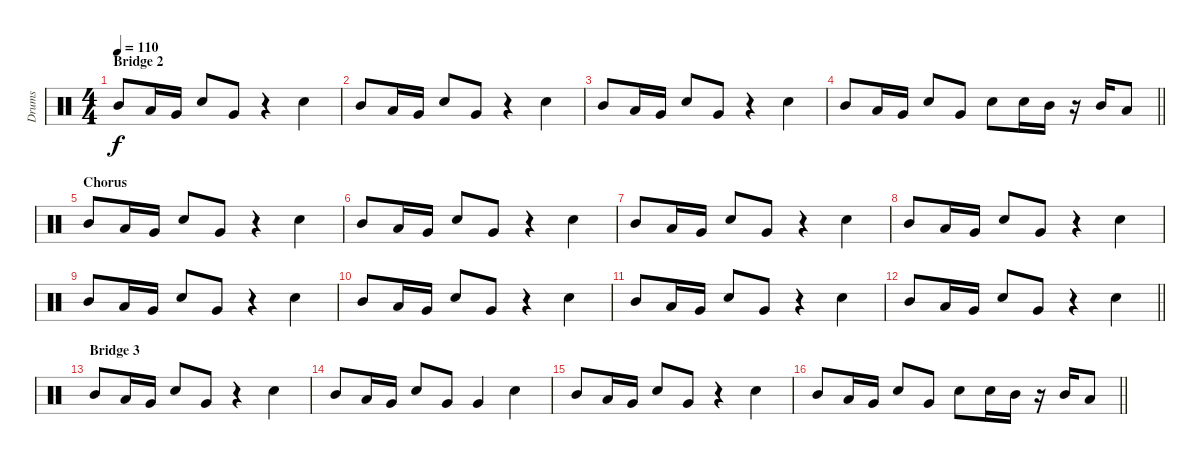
\track ("Drums" "Drums") {instrument percussion}
\staff {score}
\articulation defaults
\ts (4 4)
\section ("" "Bridge 2")
\tempo 110
\clef neutral
\ks c "Mid Tom (hit)".8{dy f} "Low Tom (hit)".16 "Very Low Tom (hit)".16 "Snare (hit) 2".8 "Very Low Tom (hit)".8
r.4 "Snare (hit) 2".4 |
"Mid Tom (hit)".8 "Low Tom (hit)".16 "Very Low Tom (hit)".16 "Snare (hit) 2".8 "Very Low Tom (hit)".8 r.4 "Snare (hit) 2".4 |
"Mid Tom (hit)".8 "Low Tom (hit)".16 "Very Low Tom (hit)".16 "Snare (hit) 2".8 "Very Low Tom (hit)".8 r.4 "Snare (hit) 2".4 |
\barLineRight lightlight "Mid Tom (hit)".8 "Low Tom (hit)".16 "Very Low Tom (hit)".16 "Snare (hit) 2".8 "Very Low Tom (hit)".8 "Snare (hit) 2".8 "Snare (hit) 2".16 "Mid Tom (hit)".16
r.16 "Mid Tom (hit)".16 "Low Tom (hit)".8 |
\section ("" "Chorus")
"Mid Tom (hit)".8 "Low Tom (hit)".16 "Very Low Tom (hit)".16 "Snare (hit) 2".8 "Very Low Tom (hit)".8 r.4 "Snare (hit) 2".4 |
"Mid Tom (hit)".8 "Low Tom (hit)".16 "Very Low Tom (hit)".16 "Snare (hit) 2".8 "Very Low Tom (hit)".8 r.4 "Snare (hit) 2".4 |
"Mid Tom (hit)".8 "Low Tom (hit)".16 "Very Low Tom (hit)".16 "Snare (hit) 2".8 "Very Low Tom (hit)".8 r.4 "Snare (hit) 2".4 |
"Mid Tom (hit)".8 "Low Tom (hit)".16 "Very Low Tom (hit)".16 "Snare (hit) 2".8 "Very Low Tom (hit)".8 r.4 "Snare (hit) 2".4 |
"Mid Tom (hit)".8 "Low Tom (hit)".16 "Very Low Tom (hit)".16 "Snare (hit) 2".8 "Very Low Tom (hit)".8 r.4 "Snare (hit) 2".4 |
"Mid Tom (hit)".8 "Low Tom (hit)".16 "Very Low Tom (hit)".16 "Snare (hit) 2".8 "Very Low Tom (hit)".8 r.4 "Snare (hit) 2".4 |
"Mid Tom (hit)".8 "Low Tom (hit)".16 "Very Low Tom (hit)".16 "Snare (hit) 2".8 "Very Low Tom (hit)".8 r.4 "Snare (hit) 2".4 |
\barLineRight lightlight "Mid Tom (hit)".8 "Low Tom (hit)".16 "Very Low Tom (hit)".16 "Snare (hit) 2".8 "Very Low Tom (hit)".8
r.4 "Snare (hit) 2".4 |
\section ("" "Bridge 3")
"Mid Tom (hit)".8 "Low Tom (hit)".16 "Very Low Tom (hit)".16 "Snare (hit) 2".8 "Very Low Tom (hit)".8 r.4 "Snare (hit) 2".4 |
"Mid Tom (hit)".8 "Low Tom (hit)".16 "Very Low Tom (hit)".16 "Snare (hit) 2".8 "Very Low Tom (hit)".8 "Very Low Tom (hit)".4 "Snare (hit) 2".4 |
"Mid Tom (hit)".8 "Low Tom (hit)".16 "Very Low Tom (hit)".16 "Snare (hit) 2".8 "Very Low Tom (hit)".8 r.4 "Snare (hit) 2".4 |
\barLineRight lightlight "Mid Tom (hit)".8 "Low Tom (hit)".16 "Very Low Tom (hit)".16 "Snare (hit) 2".8 "Very Low Tom (hit)".8 "Snare (hit) 2".8 "Snare (hit) 2".16 "Mid Tom (hit)".16
r.16 "Mid Tom (hit)".16 "Low Tom (hit)".8
